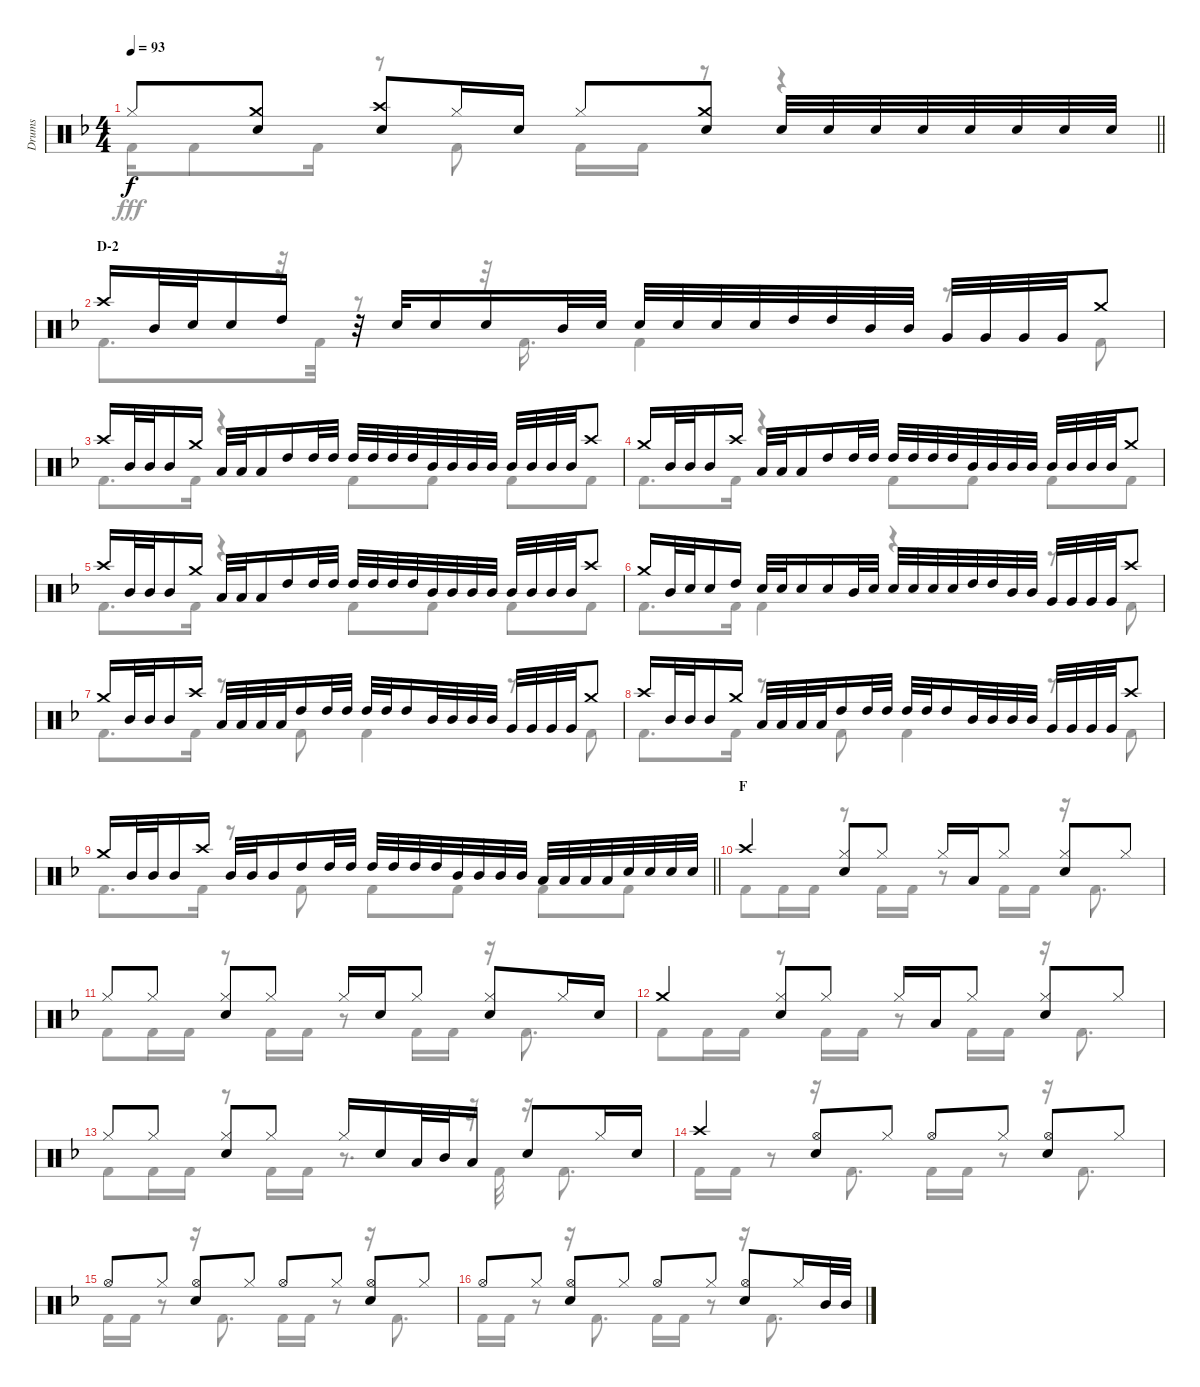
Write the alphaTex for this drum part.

\track ("Drums" "Drums") {instrument percussion}
\staff {score}
\articulation defaults
\voice
\ts (4 4)
\tempo 93
\clef neutral
\barLineRight lightlight
\ks f "Hi-Hat (closed)".8{dy f}
("Crash medium (hit)" "Snare (hit) 2").8 ("Crash high (hit)" "Snare (hit) 2").8 "Hi-Hat (closed)".16 "Snare (hit) 2".16 "Hi-Hat (closed)".8 ("Crash medium (hit)" "Snare (hit) 2").8 "Snare (hit) 2".32 "Snare (hit) 2".32 "Snare (hit) 2".32 "Snare (hit) 2".32 "Snare (hit) 2".32 "Snare (hit) 2".32 "Snare (hit) 2".32 "Snare (hit) 2".32 |
\section ("" "D-2")
"Crash high (hit)".16 "Mid Tom (hit)".32 "Snare (hit) 2".32 "Snare (hit) 2".16 "High Tom (hit)".16 r.32 "Snare (hit) 2".32 "Snare (hit) 2".16 "Snare (hit) 2".16 "Mid Tom (hit)".32 "Snare (hit) 2".32 "Snare (hit) 2".32 "Snare (hit) 2".32 "Snare (hit) 2".32 "Snare (hit) 2".32 "High Tom (hit)".32 "High Tom (hit)".32 "Mid Tom (hit)".32 "Mid Tom (hit)".32 "Very Low Tom (hit)".32 "Very Low Tom (hit)".32 "Very Low Tom (hit)".32 "Very Low Tom (hit)".32 "Crash medium (hit)".8 |
"Crash high (hit)".16 "Mid Tom (hit)".32 "Mid Tom (hit)".32 "Mid Tom (hit)".16 "Crash medium (hit)".16 "Low Tom (hit)".32 "Low Tom (hit)".32 "Low Tom (hit)".16 "High Tom (hit)".16 "High Tom (hit)".32 "High Tom (hit)".32 "High Tom (hit)".32 "High Tom (hit)".32 "High Tom (hit)".32 "High Tom (hit)".32 "Mid Tom (hit)".32 "Mid Tom (hit)".32 "Mid Tom (hit)".32 "Mid Tom (hit)".32 "Mid Tom (hit)".32 "Mid Tom (hit)".32 "Mid Tom (hit)".32 "Mid Tom (hit)".32 "Crash high (hit)".8 |
"Crash medium (hit)".16 "Mid Tom (hit)".32 "Mid Tom (hit)".32 "Mid Tom (hit)".16 "Crash high (hit)".16 "Low Tom (hit)".32 "Low Tom (hit)".32 "Low Tom (hit)".16 "High Tom (hit)".16 "High Tom (hit)".32 "High Tom (hit)".32 "High Tom (hit)".32 "High Tom (hit)".32 "High Tom (hit)".32 "High Tom (hit)".32 "Mid Tom (hit)".32 "Mid Tom (hit)".32 "Mid Tom (hit)".32 "Mid Tom (hit)".32 "Mid Tom (hit)".32 "Mid Tom (hit)".32 "Mid Tom (hit)".32 "Mid Tom (hit)".32 "Crash medium (hit)".8 |
"Crash high (hit)".16 "Mid Tom (hit)".32 "Mid Tom (hit)".32 "Mid Tom (hit)".16 "Crash medium (hit)".16 "Low Tom (hit)".32 "Low Tom (hit)".32 "Low Tom (hit)".16 "High Tom (hit)".16 "High Tom (hit)".32 "High Tom (hit)".32 "High Tom (hit)".32 "High Tom (hit)".32 "High Tom (hit)".32 "High Tom (hit)".32 "Mid Tom (hit)".32 "Mid Tom (hit)".32 "Mid Tom (hit)".32 "Mid Tom (hit)".32 "Mid Tom (hit)".32 "Mid Tom (hit)".32 "Mid Tom (hit)".32 "Mid Tom (hit)".32 "Crash high (hit)".8 |
"Crash medium (hit)".16 "Mid Tom (hit)".32 "Snare (hit) 2".32 "Snare (hit) 2".16 "High Tom (hit)".16 "Snare (hit) 2".32 "Snare (hit) 2".32 "Snare (hit) 2".16 "Snare (hit) 2".16 "Mid Tom (hit)".32 "Snare (hit) 2".32 "Snare (hit) 2".32 "Snare (hit) 2".32 "Snare (hit) 2".32 "Snare (hit) 2".32 "High Tom (hit)".32 "High Tom (hit)".32 "Mid Tom (hit)".32 "Mid Tom (hit)".32 "Very Low Tom (hit)".32 "Very Low Tom (hit)".32 "Very Low Tom (hit)".32 "Very Low Tom (hit)".32 "Crash high (hit)".8 |
"Crash medium (hit)".16 "Mid Tom (hit)".32 "Mid Tom (hit)".32 "Mid Tom (hit)".16 "Crash high (hit)".16 "Low Tom (hit)".32 "Low Tom (hit)".32 "Low Tom (hit)".32 "Low Tom (hit)".32 "High Tom (hit)".16 "High Tom (hit)".32 "High Tom (hit)".32 "High Tom (hit)".32 "High Tom (hit)".32 "High Tom (hit)".16 "Mid Tom (hit)".32 "Mid Tom (hit)".32 "Mid Tom (hit)".32 "Mid Tom (hit)".32 "Very Low Tom (hit)".32 "Very Low Tom (hit)".32 "Very Low Tom (hit)".32 "Very Low Tom (hit)".32 "Crash medium (hit)".8 |
"Crash high (hit)".16 "Mid Tom (hit)".32 "Mid Tom (hit)".32 "Mid Tom (hit)".16 "Crash medium (hit)".16 "Low Tom (hit)".32 "Low Tom (hit)".32 "Low Tom (hit)".32 "Low Tom (hit)".32 "High Tom (hit)".16 "High Tom (hit)".32 "High Tom (hit)".32 "High Tom (hit)".32 "High Tom (hit)".32 "High Tom (hit)".16 "Mid Tom (hit)".32 "Mid Tom (hit)".32 "Mid Tom (hit)".32 "Mid Tom (hit)".32 "Very Low Tom (hit)".32 "Very Low Tom (hit)".32 "Very Low Tom (hit)".32 "Very Low Tom (hit)".32 "Crash high (hit)".8 |
\barLineRight lightlight "Crash medium (hit)".16 "Mid Tom (hit)".32 "Mid Tom (hit)".32 "Mid Tom (hit)".16 "Crash high (hit)".16 "Mid Tom (hit)".32 "Mid Tom (hit)".32 "Mid Tom (hit)".16 "High Tom (hit)".16 "High Tom (hit)".32 "High Tom (hit)".32 "High Tom (hit)".32 "High Tom (hit)".32 "High Tom (hit)".32 "High Tom (hit)".32 "Mid Tom (hit)".32 "Mid Tom (hit)".32 "Mid Tom (hit)".32 "Mid Tom (hit)".32 "Low Tom (hit)".32 "Low Tom (hit)".32 "Low Tom (hit)".32 "Low Tom (hit)".32 "Snare (hit) 2".32 "Snare (hit) 2".32 "Snare (hit) 2".32 "Snare (hit) 2".32
|
\section ("" "F")
"Crash high (hit)".4 ("Hi-Hat (closed)" "Snare (hit) 2").8 "Hi-Hat (closed)".8 "Hi-Hat (closed)".16 "Low Tom (hit)".16 "Hi-Hat (closed)".8 ("Hi-Hat (closed)" "Snare (hit) 2").8 "Hi-Hat (closed)".8 |
"Hi-Hat (closed)".8 "Hi-Hat (closed)".8 ("Hi-Hat (closed)" "Snare (hit) 2").8 "Hi-Hat (closed)".8 "Hi-Hat (closed)".16 "Snare (hit) 2".16 "Hi-Hat (closed)".8 ("Hi-Hat (closed)" "Snare (hit) 2").8 "Hi-Hat (closed)".16 "Snare (hit) 2".16 |
"Crash medium (hit)".4 ("Hi-Hat (closed)" "Snare (hit) 2").8 "Hi-Hat (closed)".8 "Hi-Hat (closed)".16 "Low Tom (hit)".16 "Hi-Hat (closed)".8 ("Hi-Hat (closed)" "Snare (hit) 2").8 "Hi-Hat (closed)".8 |
"Hi-Hat (closed)".8 "Hi-Hat (closed)".8 ("Hi-Hat (closed)" "Snare (hit) 2").8 "Hi-Hat (closed)".8 "Hi-Hat (closed)".16 "Snare (hit) 2".16 "Low Tom (hit)".32 "Mid Tom (hit)".32 "Low Tom (hit)".16 "Snare (hit) 2".8 "Hi-Hat (closed)".16 "Snare (hit) 2".16 |
"Crash high (hit)".4 ("Hi-Hat (open)" "Snare (hit) 2").8 "Hi-Hat (closed)".8 "Hi-Hat (open)".8 "Hi-Hat (closed)".8 ("Hi-Hat (open)" "Snare (hit) 2").8 "Hi-Hat (closed)".8 |
"Hi-Hat (open)".8 "Hi-Hat (closed)".8 ("Hi-Hat (open)" "Snare (hit) 2").8 "Hi-Hat (closed)".8 "Hi-Hat (open)".8 "Hi-Hat (closed)".8 ("Hi-Hat (open)" "Snare (hit) 2").8 "Hi-Hat (closed)".8 |
"Hi-Hat (open)".8 "Hi-Hat (closed)".8 ("Hi-Hat (open)" "Snare (hit) 2").8 "Hi-Hat (closed)".8 "Hi-Hat (open)".8 "Hi-Hat (closed)".8 ("Hi-Hat (open)" "Snare (hit) 2").8 "Hi-Hat (closed)".16 "Mid Tom (hit)".32 "Mid Tom (hit)".32
\voice
\clef neutral
\ottava regular
\simile none
\barLineRight lightlight
\ks f "Kick (hit) 2".16{dy fff} "Kick (hit) 2".8 "Kick (hit) 2".16
r.8 "Kick (hit) 2".8 "Kick (hit) 2".16 "Kick (hit) 2".16 r.8 r.4 |
"Kick (hit) 2".8{d} r.32 "Kick (hit) 2".32 r.8 r.32 "Kick (hit) 2".16{d} "Kick (hit) 2".4 r.8 "Kick (hit) 2".8 |
"Kick (hit) 2".8{d} "Kick (hit) 2".16 r.4 "Kick (hit) 2".8 "Kick (hit) 2".8 "Kick (hit) 2".8 "Kick (hit) 2".8 |
"Kick (hit) 2".8{d} "Kick (hit) 2".16 r.4 "Kick (hit) 2".8 "Kick (hit) 2".8 "Kick (hit) 2".8 "Kick (hit) 2".8 |
"Kick (hit) 2".8{d} "Kick (hit) 2".16 r.4 "Kick (hit) 2".8 "Kick (hit) 2".8 "Kick (hit) 2".8 "Kick (hit) 2".8 |
"Kick (hit) 2".8{d} "Kick (hit) 2".16 "Kick (hit) 2".4 r.4 r.8 "Kick (hit) 2".8 |
"Kick (hit) 2".8{d} "Kick (hit) 2".16 r.8 "Kick (hit) 2".8 "Kick (hit) 2".4 r.8 "Kick (hit) 2".8 |
"Kick (hit) 2".8{d} "Kick (hit) 2".16 r.8 "Kick (hit) 2".8 "Kick (hit) 2".4 r.8 "Kick (hit) 2".8 |
\barLineRight lightlight "Kick (hit) 2".8{d} "Kick (hit) 2".16
r.8 "Kick (hit) 2".8 "Kick (hit) 2".8 "Kick (hit) 2".8 "Kick (hit) 2".8 "Kick (hit) 2".8 |
"Kick (hit) 2".8 "Kick (hit) 2".16 "Kick (hit) 2".16 r.8 "Kick (hit) 2".16 "Kick (hit) 2".16 r.8 "Kick (hit) 2".16 "Kick (hit) 2".16 r.16 "Kick (hit) 2".8{d} |
"Kick (hit) 2".8 "Kick (hit) 2".16 "Kick (hit) 2".16 r.8 "Kick (hit) 2".16 "Kick (hit) 2".16 r.8 "Kick (hit) 2".16 "Kick (hit) 2".16 r.16 "Kick (hit) 2".8{d} |
"Kick (hit) 2".8 "Kick (hit) 2".16 "Kick (hit) 2".16 r.8 "Kick (hit) 2".16 "Kick (hit) 2".16 r.8 "Kick (hit) 2".16 "Kick (hit) 2".16 r.16 "Kick (hit) 2".8{d} |
"Kick (hit) 2".8 "Kick (hit) 2".16 "Kick (hit) 2".16 r.8 "Kick (hit) 2".16 "Kick (hit) 2".16 r.8{d} r.32 "Kick (hit) 2".32 r.16 "Kick (hit) 2".8{d} |
"Kick (hit) 2".16 "Kick (hit) 2".16 r.8 r.16 "Kick (hit) 2".8{d} "Kick (hit) 2".16 "Kick (hit) 2".16 r.8 r.16 "Kick (hit) 2".8{d} |
"Kick (hit) 2".16 "Kick (hit) 2".16 r.8 r.16 "Kick (hit) 2".8{d} "Kick (hit) 2".16 "Kick (hit) 2".16 r.8 r.16 "Kick (hit) 2".8{d} |
"Kick (hit) 2".16 "Kick (hit) 2".16 r.8 r.16 "Kick (hit) 2".8{d} "Kick (hit) 2".16 "Kick (hit) 2".16 r.8 r.16 "Kick (hit) 2".8{d}
